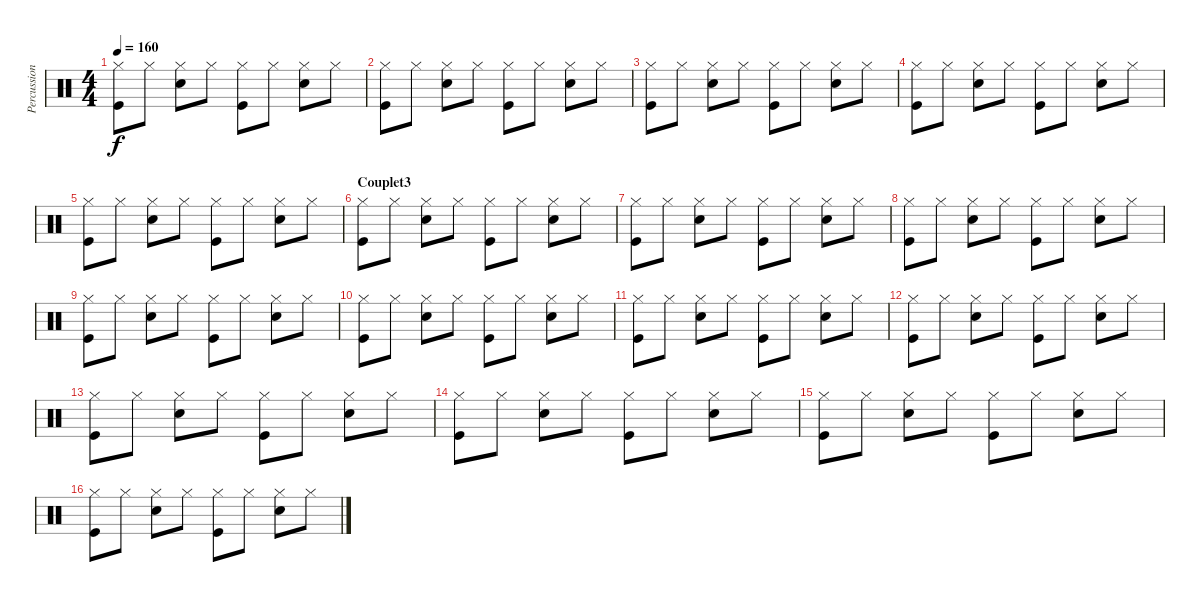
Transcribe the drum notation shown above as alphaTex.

\track ("Percussions" "Percussion") {instrument percussion}
\staff {score}
\articulation defaults
\ts (4 4)
\tempo 160
\clef neutral
\ks c
("Hi-Hat (closed)" "Kick (hit)").8{dy f} "Hi-Hat (closed)".8 ("Hi-Hat (closed)" "Snare (hit) 2").8 "Hi-Hat (closed)".8 ("Hi-Hat (closed)" "Kick (hit)").8 "Hi-Hat (closed)".8 ("Hi-Hat (closed)" "Snare (hit) 2").8 "Hi-Hat (closed)".8 |
("Hi-Hat (closed)" "Kick (hit)").8 "Hi-Hat (closed)".8 ("Hi-Hat (closed)" "Snare (hit) 2").8 "Hi-Hat (closed)".8 ("Hi-Hat (closed)" "Kick (hit)").8 "Hi-Hat (closed)".8 ("Hi-Hat (closed)" "Snare (hit) 2").8 "Hi-Hat (closed)".8 |
("Hi-Hat (closed)" "Kick (hit)").8 "Hi-Hat (closed)".8 ("Hi-Hat (closed)" "Snare (hit) 2").8 "Hi-Hat (closed)".8 ("Hi-Hat (closed)" "Kick (hit)").8 "Hi-Hat (closed)".8 ("Hi-Hat (closed)" "Snare (hit) 2").8 "Hi-Hat (closed)".8 |
("Hi-Hat (closed)" "Kick (hit)").8 "Hi-Hat (closed)".8 ("Hi-Hat (closed)" "Snare (hit) 2").8 "Hi-Hat (closed)".8 ("Hi-Hat (closed)" "Kick (hit)").8 "Hi-Hat (closed)".8 ("Hi-Hat (closed)" "Snare (hit) 2").8 "Hi-Hat (closed)".8 |
("Hi-Hat (closed)" "Kick (hit)").8 "Hi-Hat (closed)".8 ("Hi-Hat (closed)" "Snare (hit) 2").8 "Hi-Hat (closed)".8 ("Hi-Hat (closed)" "Kick (hit)").8 "Hi-Hat (closed)".8 ("Hi-Hat (closed)" "Snare (hit) 2").8 "Hi-Hat (closed)".8 |
\section ("" "Couplet3")
("Hi-Hat (closed)" "Kick (hit)").8 "Hi-Hat (closed)".8 ("Hi-Hat (closed)" "Snare (hit) 2").8 "Hi-Hat (closed)".8 ("Hi-Hat (closed)" "Kick (hit)").8 "Hi-Hat (closed)".8 ("Hi-Hat (closed)" "Snare (hit) 2").8 "Hi-Hat (closed)".8 |
("Hi-Hat (closed)" "Kick (hit)").8 "Hi-Hat (closed)".8 ("Hi-Hat (closed)" "Snare (hit) 2").8 "Hi-Hat (closed)".8 ("Hi-Hat (closed)" "Kick (hit)").8 "Hi-Hat (closed)".8 ("Hi-Hat (closed)" "Snare (hit) 2").8 "Hi-Hat (closed)".8 |
("Hi-Hat (closed)" "Kick (hit)").8 "Hi-Hat (closed)".8 ("Hi-Hat (closed)" "Snare (hit) 2").8 "Hi-Hat (closed)".8 ("Hi-Hat (closed)" "Kick (hit)").8 "Hi-Hat (closed)".8 ("Hi-Hat (closed)" "Snare (hit) 2").8 "Hi-Hat (closed)".8 |
("Hi-Hat (closed)" "Kick (hit)").8 "Hi-Hat (closed)".8 ("Hi-Hat (closed)" "Snare (hit) 2").8 "Hi-Hat (closed)".8 ("Hi-Hat (closed)" "Kick (hit)").8 "Hi-Hat (closed)".8 ("Hi-Hat (closed)" "Snare (hit) 2").8 "Hi-Hat (closed)".8 |
("Hi-Hat (closed)" "Kick (hit)").8 "Hi-Hat (closed)".8 ("Hi-Hat (closed)" "Snare (hit) 2").8 "Hi-Hat (closed)".8 ("Hi-Hat (closed)" "Kick (hit)").8 "Hi-Hat (closed)".8 ("Hi-Hat (closed)" "Snare (hit) 2").8 "Hi-Hat (closed)".8 |
("Hi-Hat (closed)" "Kick (hit)").8 "Hi-Hat (closed)".8 ("Hi-Hat (closed)" "Snare (hit) 2").8 "Hi-Hat (closed)".8 ("Hi-Hat (closed)" "Kick (hit)").8 "Hi-Hat (closed)".8 ("Hi-Hat (closed)" "Snare (hit) 2").8 "Hi-Hat (closed)".8 |
("Hi-Hat (closed)" "Kick (hit)").8 "Hi-Hat (closed)".8 ("Hi-Hat (closed)" "Snare (hit) 2").8 "Hi-Hat (closed)".8 ("Hi-Hat (closed)" "Kick (hit)").8 "Hi-Hat (closed)".8 ("Hi-Hat (closed)" "Snare (hit) 2").8 "Hi-Hat (closed)".8 |
("Hi-Hat (closed)" "Kick (hit)").8 "Hi-Hat (closed)".8 ("Hi-Hat (closed)" "Snare (hit) 2").8 "Hi-Hat (closed)".8 ("Hi-Hat (closed)" "Kick (hit)").8 "Hi-Hat (closed)".8 ("Hi-Hat (closed)" "Snare (hit) 2").8 "Hi-Hat (closed)".8 |
("Hi-Hat (closed)" "Kick (hit)").8 "Hi-Hat (closed)".8 ("Hi-Hat (closed)" "Snare (hit) 2").8 "Hi-Hat (closed)".8 ("Hi-Hat (closed)" "Kick (hit)").8 "Hi-Hat (closed)".8 ("Hi-Hat (closed)" "Snare (hit) 2").8 "Hi-Hat (closed)".8 |
("Hi-Hat (closed)" "Kick (hit)").8 "Hi-Hat (closed)".8 ("Hi-Hat (closed)" "Snare (hit) 2").8 "Hi-Hat (closed)".8 ("Hi-Hat (closed)" "Kick (hit)").8 "Hi-Hat (closed)".8 ("Hi-Hat (closed)" "Snare (hit) 2").8 "Hi-Hat (closed)".8 |
("Hi-Hat (closed)" "Kick (hit)").8 "Hi-Hat (closed)".8 ("Hi-Hat (closed)" "Snare (hit) 2").8 "Hi-Hat (closed)".8 ("Hi-Hat (closed)" "Kick (hit)").8 "Hi-Hat (closed)".8 ("Hi-Hat (closed)" "Snare (hit) 2").8 "Hi-Hat (closed)".8
